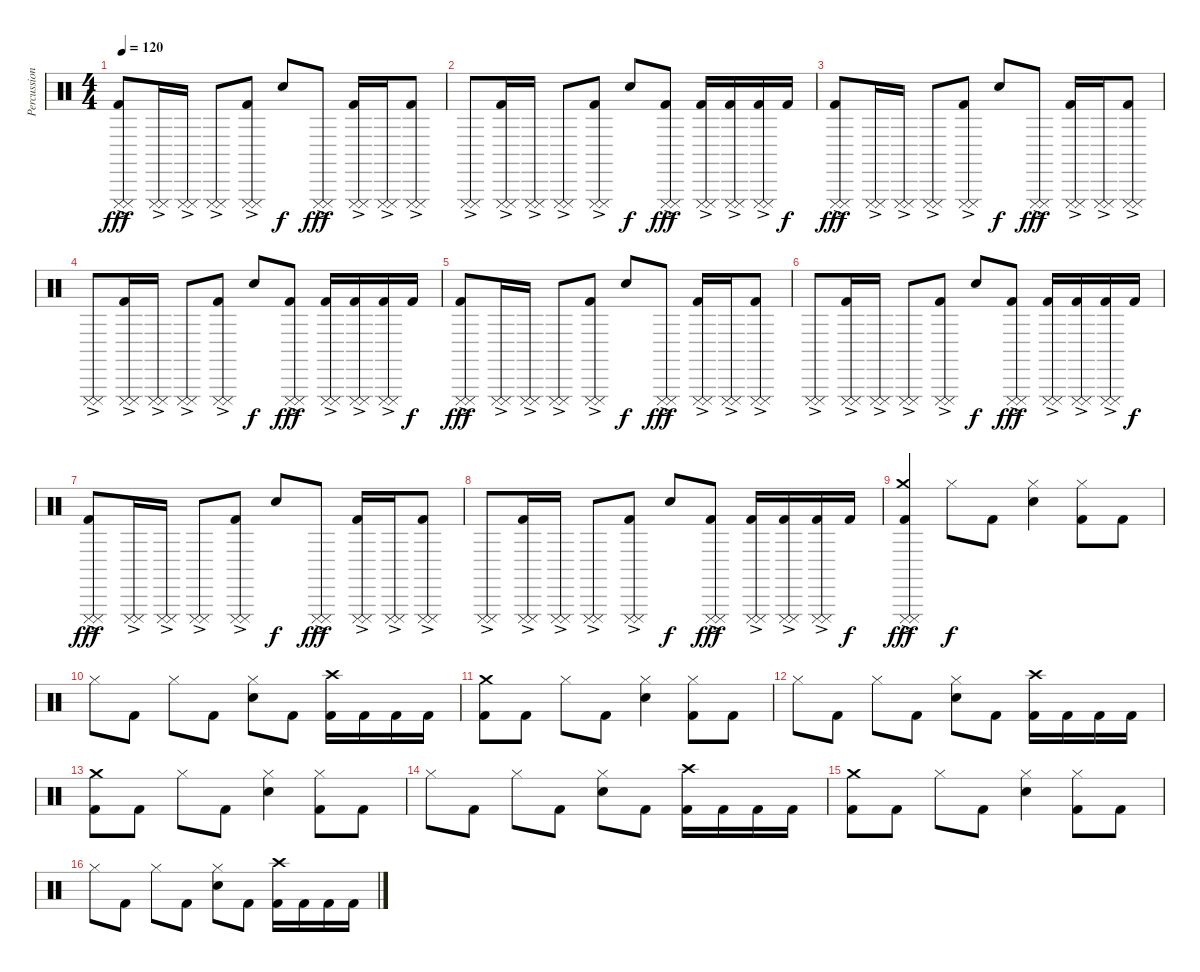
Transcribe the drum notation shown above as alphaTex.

\track ("Percussion" "Percussion") {instrument percussion}
\staff {score}
\articulation defaults
\ts (4 4)
\tempo 120
\clef neutral
\ks c
("Cuica (mute)"{ac} "Cuica (mute)"{ac} "Kick (hit) 2").8{dy fff} ("Cuica (mute)"{ac} "Cuica (mute)"{ac}).16 ("Cuica (mute)"{ac} "Cuica (mute)"{ac}).16 ("Cuica (mute)"{ac} "Cuica (mute)"{ac}).8 ("Cuica (mute)"{ac} "Cuica (mute)"{ac} "Kick (hit) 2").8 "Electric Snare (hit)".8{dy f} ("Cuica (mute)"{ac} "Cuica (mute)"{ac}).8{dy fff} ("Cuica (mute)"{ac} "Cuica (mute)"{ac} "Kick (hit) 2").16 ("Cuica (mute)"{ac} "Cuica (mute)"{ac}).16 ("Cuica (mute)"{ac} "Cuica (mute)"{ac} "Kick (hit) 2").8 |
("Cuica (mute)"{ac} "Cuica (mute)"{ac}).8 ("Cuica (mute)"{ac} "Cuica (mute)"{ac} "Kick (hit) 2").16 ("Cuica (mute)"{ac} "Cuica (mute)"{ac}).16 ("Cuica (mute)"{ac} "Cuica (mute)"{ac}).8 ("Cuica (mute)"{ac} "Cuica (mute)"{ac} "Kick (hit) 2").8 "Electric Snare (hit)".8{dy f} ("Cuica (mute)"{ac} "Cuica (mute)"{ac} "Kick (hit) 2").8{dy fff} ("Cuica (mute)"{ac} "Cuica (mute)"{ac} "Kick (hit) 2").16 ("Cuica (mute)"{ac} "Cuica (mute)"{ac} "Kick (hit) 2").16 ("Cuica (mute)"{ac} "Cuica (mute)"{ac} "Kick (hit) 2").16 "Kick (hit) 2".16{dy f} |
("Cuica (mute)"{ac} "Cuica (mute)"{ac} "Kick (hit) 2").8{dy fff} ("Cuica (mute)"{ac} "Cuica (mute)"{ac}).16 ("Cuica (mute)"{ac} "Cuica (mute)"{ac}).16 ("Cuica (mute)"{ac} "Cuica (mute)"{ac}).8 ("Cuica (mute)"{ac} "Cuica (mute)"{ac} "Kick (hit) 2").8 "Electric Snare (hit)".8{dy f} ("Cuica (mute)"{ac} "Cuica (mute)"{ac}).8{dy fff} ("Cuica (mute)"{ac} "Cuica (mute)"{ac} "Kick (hit) 2").16 ("Cuica (mute)"{ac} "Cuica (mute)"{ac}).16 ("Cuica (mute)"{ac} "Cuica (mute)"{ac} "Kick (hit) 2").8 |
("Cuica (mute)"{ac} "Cuica (mute)"{ac}).8 ("Cuica (mute)"{ac} "Cuica (mute)"{ac} "Kick (hit) 2").16 ("Cuica (mute)"{ac} "Cuica (mute)"{ac}).16 ("Cuica (mute)"{ac} "Cuica (mute)"{ac}).8 ("Cuica (mute)"{ac} "Cuica (mute)"{ac} "Kick (hit) 2").8 "Electric Snare (hit)".8{dy f} ("Cuica (mute)"{ac} "Cuica (mute)"{ac} "Kick (hit) 2").8{dy fff} ("Cuica (mute)"{ac} "Cuica (mute)"{ac} "Kick (hit) 2").16 ("Cuica (mute)"{ac} "Cuica (mute)"{ac} "Kick (hit) 2").16 ("Cuica (mute)"{ac} "Cuica (mute)"{ac} "Kick (hit) 2").16 "Kick (hit) 2".16{dy f} |
("Cuica (mute)"{ac} "Cuica (mute)"{ac} "Kick (hit) 2").8{dy fff} ("Cuica (mute)"{ac} "Cuica (mute)"{ac}).16 ("Cuica (mute)"{ac} "Cuica (mute)"{ac}).16 ("Cuica (mute)"{ac} "Cuica (mute)"{ac}).8 ("Cuica (mute)"{ac} "Cuica (mute)"{ac} "Kick (hit) 2").8 "Electric Snare (hit)".8{dy f} ("Cuica (mute)"{ac} "Cuica (mute)"{ac}).8{dy fff} ("Cuica (mute)"{ac} "Cuica (mute)"{ac} "Kick (hit) 2").16 ("Cuica (mute)"{ac} "Cuica (mute)"{ac}).16 ("Cuica (mute)"{ac} "Cuica (mute)"{ac} "Kick (hit) 2").8 |
("Cuica (mute)"{ac} "Cuica (mute)"{ac}).8 ("Cuica (mute)"{ac} "Cuica (mute)"{ac} "Kick (hit) 2").16 ("Cuica (mute)"{ac} "Cuica (mute)"{ac}).16 ("Cuica (mute)"{ac} "Cuica (mute)"{ac}).8 ("Cuica (mute)"{ac} "Cuica (mute)"{ac} "Kick (hit) 2").8 "Electric Snare (hit)".8{dy f} ("Cuica (mute)"{ac} "Cuica (mute)"{ac} "Kick (hit) 2").8{dy fff} ("Cuica (mute)"{ac} "Cuica (mute)"{ac} "Kick (hit) 2").16 ("Cuica (mute)"{ac} "Cuica (mute)"{ac} "Kick (hit) 2").16 ("Cuica (mute)"{ac} "Cuica (mute)"{ac} "Kick (hit) 2").16 "Kick (hit) 2".16{dy f} |
("Cuica (mute)"{ac} "Cuica (mute)"{ac} "Kick (hit) 2").8{dy fff} ("Cuica (mute)"{ac} "Cuica (mute)"{ac}).16 ("Cuica (mute)"{ac} "Cuica (mute)"{ac}).16 ("Cuica (mute)"{ac} "Cuica (mute)"{ac}).8 ("Cuica (mute)"{ac} "Cuica (mute)"{ac} "Kick (hit) 2").8 "Electric Snare (hit)".8{dy f} ("Cuica (mute)"{ac} "Cuica (mute)"{ac}).8{dy fff} ("Cuica (mute)"{ac} "Cuica (mute)"{ac} "Kick (hit) 2").16 ("Cuica (mute)"{ac} "Cuica (mute)"{ac}).16 ("Cuica (mute)"{ac} "Cuica (mute)"{ac} "Kick (hit) 2").8 |
("Cuica (mute)"{ac} "Cuica (mute)"{ac}).8 ("Cuica (mute)"{ac} "Cuica (mute)"{ac} "Kick (hit) 2").16 ("Cuica (mute)"{ac} "Cuica (mute)"{ac}).16 ("Cuica (mute)"{ac} "Cuica (mute)"{ac}).8 ("Cuica (mute)"{ac} "Cuica (mute)"{ac} "Kick (hit) 2").8 "Electric Snare (hit)".8{dy f} ("Cuica (mute)"{ac} "Cuica (mute)"{ac} "Kick (hit) 2").8{dy fff} ("Cuica (mute)"{ac} "Cuica (mute)"{ac} "Kick (hit) 2").16 ("Cuica (mute)"{ac} "Cuica (mute)"{ac} "Kick (hit) 2").16 ("Cuica (mute)"{ac} "Cuica (mute)"{ac} "Kick (hit) 2").16 "Kick (hit) 2".16{dy f} |
("Crash medium (hit)" "Cuica (mute)"{ac} "Cuica (mute)"{ac} "Kick (hit) 2").4{dy fff} "Hi-Hat (closed)".8{dy f} "Kick (hit) 2".8 ("Hi-Hat (closed)" "Electric Snare (hit)").4 ("Hi-Hat (closed)" "Kick (hit) 2").8 "Kick (hit) 2".8 |
"Hi-Hat (closed)".8 "Kick (hit) 2".8 "Hi-Hat (closed)".8 "Kick (hit) 2".8 ("Hi-Hat (closed)" "Electric Snare (hit)").8 "Kick (hit) 2".8 ("Crash high (hit)" "Kick (hit) 2").16 "Kick (hit) 2".16 "Kick (hit) 2".16 "Kick (hit) 2".16 |
("Crash medium (hit)" "Kick (hit) 2").8 "Kick (hit) 2".8 "Hi-Hat (closed)".8 "Kick (hit) 2".8 ("Hi-Hat (closed)" "Electric Snare (hit)").4 ("Hi-Hat (closed)" "Kick (hit) 2").8 "Kick (hit) 2".8 |
"Hi-Hat (closed)".8 "Kick (hit) 2".8 "Hi-Hat (closed)".8 "Kick (hit) 2".8 ("Hi-Hat (closed)" "Electric Snare (hit)").8 "Kick (hit) 2".8 ("Crash high (hit)" "Kick (hit) 2").16 "Kick (hit) 2".16 "Kick (hit) 2".16 "Kick (hit) 2".16 |
("Crash medium (hit)" "Kick (hit) 2").8 "Kick (hit) 2".8 "Hi-Hat (closed)".8 "Kick (hit) 2".8 ("Hi-Hat (closed)" "Electric Snare (hit)").4 ("Hi-Hat (closed)" "Kick (hit) 2").8 "Kick (hit) 2".8 |
"Hi-Hat (closed)".8 "Kick (hit) 2".8 "Hi-Hat (closed)".8 "Kick (hit) 2".8 ("Hi-Hat (closed)" "Electric Snare (hit)").8 "Kick (hit) 2".8 ("Crash high (hit)" "Kick (hit) 2").16 "Kick (hit) 2".16 "Kick (hit) 2".16 "Kick (hit) 2".16 |
("Crash medium (hit)" "Kick (hit) 2").8 "Kick (hit) 2".8 "Hi-Hat (closed)".8 "Kick (hit) 2".8 ("Hi-Hat (closed)" "Electric Snare (hit)").4 ("Hi-Hat (closed)" "Kick (hit) 2").8 "Kick (hit) 2".8 |
"Hi-Hat (closed)".8 "Kick (hit) 2".8 "Hi-Hat (closed)".8 "Kick (hit) 2".8 ("Hi-Hat (closed)" "Electric Snare (hit)").8 "Kick (hit) 2".8 ("Crash high (hit)" "Kick (hit) 2").16 "Kick (hit) 2".16 "Kick (hit) 2".16 "Kick (hit) 2".16
